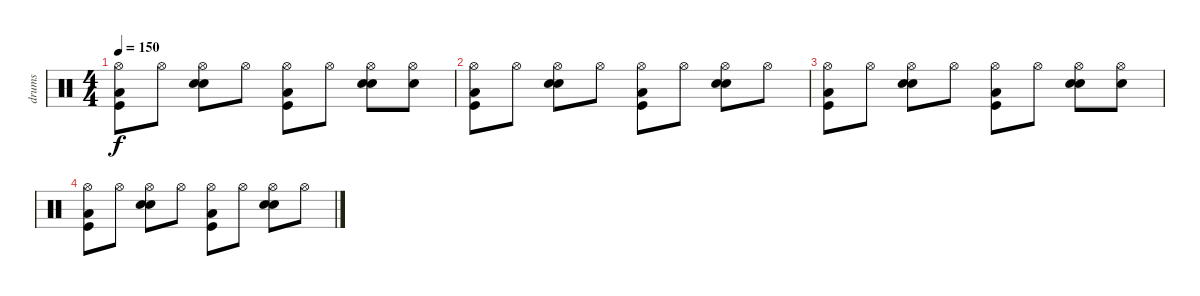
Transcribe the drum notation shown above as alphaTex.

\track ("drums" "drums") {instrument percussion}
\staff {score}
\articulation defaults
\ts (4 4)
\tempo 150
\clef neutral
\ks c
("Hi-Hat (open)" "Low Floor Tom (hit)" "Kick (hit)").8{dy f} "Hi-Hat (open)".8 ("Hi-Hat (open)" "Electric Snare (hit)" "Snare (hit) 2").8 "Hi-Hat (open)".8 ("Hi-Hat (open)" "Low Floor Tom (hit)" "Kick (hit)").8 "Hi-Hat (open)".8 ("Hi-Hat (open)" "Electric Snare (hit)" "Snare (hit) 2").8 ("Hi-Hat (open)" "Electric Snare (hit)").8 |
("Hi-Hat (open)" "Low Floor Tom (hit)" "Kick (hit)").8 "Hi-Hat (open)".8 ("Hi-Hat (open)" "Electric Snare (hit)" "Snare (hit) 2").8 "Hi-Hat (open)".8 ("Hi-Hat (open)" "Low Floor Tom (hit)" "Kick (hit)").8 "Hi-Hat (open)".8 ("Hi-Hat (open)" "Electric Snare (hit)" "Snare (hit) 2").8 "Hi-Hat (open)".8 |
("Hi-Hat (open)" "Low Floor Tom (hit)" "Kick (hit)").8 "Hi-Hat (open)".8 ("Hi-Hat (open)" "Electric Snare (hit)" "Snare (hit) 2").8 "Hi-Hat (open)".8 ("Hi-Hat (open)" "Low Floor Tom (hit)" "Kick (hit)").8 "Hi-Hat (open)".8 ("Hi-Hat (open)" "Electric Snare (hit)" "Snare (hit) 2").8 ("Hi-Hat (open)" "Electric Snare (hit)").8 |
("Hi-Hat (open)" "Low Floor Tom (hit)" "Kick (hit)").8 "Hi-Hat (open)".8 ("Hi-Hat (open)" "Electric Snare (hit)" "Snare (hit) 2").8 "Hi-Hat (open)".8 ("Hi-Hat (open)" "Low Floor Tom (hit)" "Kick (hit)").8 "Hi-Hat (open)".8 ("Hi-Hat (open)" "Electric Snare (hit)" "Snare (hit) 2").8 "Hi-Hat (open)".8
